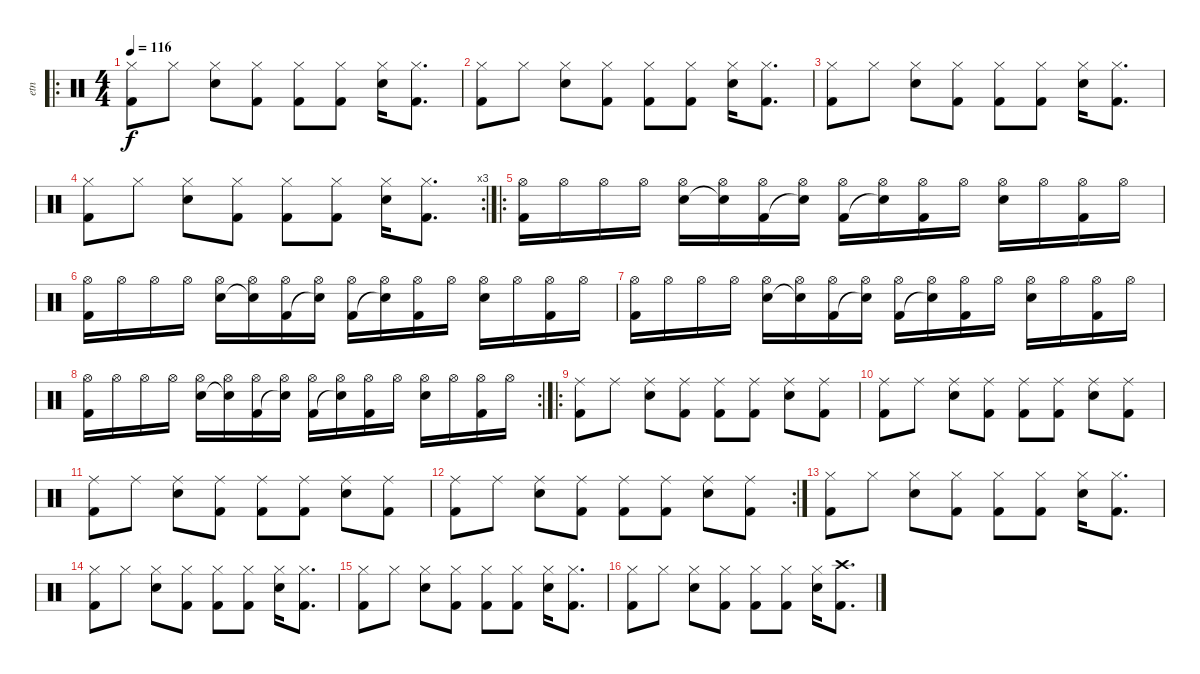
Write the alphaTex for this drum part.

\track ("etn" "etn") {instrument percussion}
\staff {score}
\articulation defaults
\ro
\ts (4 4)
\tempo 116
\clef neutral
\ks c
("Hi-Hat (closed)" "Kick (hit) 2").8{dy f} "Hi-Hat (closed)".8 ("Hi-Hat (closed)" "Snare (hit) 2").8 ("Hi-Hat (closed)" "Kick (hit) 2").8 ("Hi-Hat (closed)" "Kick (hit) 2").8 ("Hi-Hat (closed)" "Kick (hit) 2").8 ("Hi-Hat (closed)" "Snare (hit) 2").16 ("Hi-Hat (closed)" "Kick (hit) 2").8{d} |
("Hi-Hat (closed)" "Kick (hit) 2").8 "Hi-Hat (closed)".8 ("Hi-Hat (closed)" "Snare (hit) 2").8 ("Hi-Hat (closed)" "Kick (hit) 2").8 ("Hi-Hat (closed)" "Kick (hit) 2").8 ("Hi-Hat (closed)" "Kick (hit) 2").8 ("Hi-Hat (closed)" "Snare (hit) 2").16 ("Hi-Hat (closed)" "Kick (hit) 2").8{d} |
("Hi-Hat (closed)" "Kick (hit) 2").8 "Hi-Hat (closed)".8 ("Hi-Hat (closed)" "Snare (hit) 2").8 ("Hi-Hat (closed)" "Kick (hit) 2").8 ("Hi-Hat (closed)" "Kick (hit) 2").8 ("Hi-Hat (closed)" "Kick (hit) 2").8 ("Hi-Hat (closed)" "Snare (hit) 2").16 ("Hi-Hat (closed)" "Kick (hit) 2").8{d} |
\rc 3
("Hi-Hat (closed)" "Kick (hit) 2").8 "Hi-Hat (closed)".8 ("Hi-Hat (closed)" "Snare (hit) 2").8 ("Hi-Hat (closed)" "Kick (hit) 2").8 ("Hi-Hat (closed)" "Kick (hit) 2").8 ("Hi-Hat (closed)" "Kick (hit) 2").8 ("Hi-Hat (closed)" "Snare (hit) 2").16 ("Hi-Hat (closed)" "Kick (hit) 2").8{d} |
\ro
("Hi-Hat (open)" "Kick (hit) 2").16 "Hi-Hat (open)".16 "Hi-Hat (open)".16 "Hi-Hat (open)".16 ("Hi-Hat (open)" "Snare (hit) 2").16 ("Hi-Hat (open)" "Snare (hit)"{t}).16 ("Hi-Hat (open)" "Kick (hit) 2").16 ("Hi-Hat (open)" "Snare (hit)"{t}).16 ("Hi-Hat (open)" "Kick (hit) 2").16 ("Hi-Hat (open)" "Snare (hit)"{t}).16 ("Hi-Hat (open)" "Kick (hit) 2").16 "Hi-Hat (open)".16 ("Hi-Hat (open)" "Snare (hit) 2").16 "Hi-Hat (open)".16 ("Hi-Hat (open)" "Kick (hit) 2").16 "Hi-Hat (open)".16 |
("Hi-Hat (open)" "Kick (hit) 2").16 "Hi-Hat (open)".16 "Hi-Hat (open)".16 "Hi-Hat (open)".16 ("Hi-Hat (open)" "Snare (hit) 2").16 ("Hi-Hat (open)" "Snare (hit)"{t}).16 ("Hi-Hat (open)" "Kick (hit) 2").16 ("Hi-Hat (open)" "Snare (hit)"{t}).16 ("Hi-Hat (open)" "Kick (hit) 2").16 ("Hi-Hat (open)" "Snare (hit)"{t}).16 ("Hi-Hat (open)" "Kick (hit) 2").16 "Hi-Hat (open)".16 ("Hi-Hat (open)" "Snare (hit) 2").16 "Hi-Hat (open)".16 ("Hi-Hat (open)" "Kick (hit) 2").16 "Hi-Hat (open)".16 |
("Hi-Hat (open)" "Kick (hit) 2").16 "Hi-Hat (open)".16 "Hi-Hat (open)".16 "Hi-Hat (open)".16 ("Hi-Hat (open)" "Snare (hit) 2").16 ("Hi-Hat (open)" "Snare (hit)"{t}).16 ("Hi-Hat (open)" "Kick (hit) 2").16 ("Hi-Hat (open)" "Snare (hit)"{t}).16 ("Hi-Hat (open)" "Kick (hit) 2").16 ("Hi-Hat (open)" "Snare (hit)"{t}).16 ("Hi-Hat (open)" "Kick (hit) 2").16 "Hi-Hat (open)".16 ("Hi-Hat (open)" "Snare (hit) 2").16 "Hi-Hat (open)".16 ("Hi-Hat (open)" "Kick (hit) 2").16 "Hi-Hat (open)".16 |
\rc 2
("Hi-Hat (open)" "Kick (hit) 2").16 "Hi-Hat (open)".16 "Hi-Hat (open)".16 "Hi-Hat (open)".16 ("Hi-Hat (open)" "Snare (hit) 2").16 ("Hi-Hat (open)" "Snare (hit)"{t}).16 ("Hi-Hat (open)" "Kick (hit) 2").16 ("Hi-Hat (open)" "Snare (hit)"{t}).16 ("Hi-Hat (open)" "Kick (hit) 2").16 ("Hi-Hat (open)" "Snare (hit)"{t}).16 ("Hi-Hat (open)" "Kick (hit) 2").16 "Hi-Hat (open)".16 ("Hi-Hat (open)" "Snare (hit) 2").16 "Hi-Hat (open)".16 ("Hi-Hat (open)" "Kick (hit) 2").16 "Hi-Hat (open)".16 |
\ro
("Ride (middle)" "Kick (hit) 2").8 "Ride (middle)".8 ("Ride (middle)" "Snare (hit) 2").8 ("Ride (middle)" "Kick (hit) 2").8 ("Ride (middle)" "Kick (hit) 2").8 ("Ride (middle)" "Kick (hit) 2").8 ("Ride (middle)" "Snare (hit) 2").8 ("Ride (middle)" "Kick (hit) 2").8 |
("Ride (middle)" "Kick (hit) 2").8 "Ride (middle)".8 ("Ride (middle)" "Snare (hit) 2").8 ("Ride (middle)" "Kick (hit) 2").8 ("Ride (middle)" "Kick (hit) 2").8 ("Ride (middle)" "Kick (hit) 2").8 ("Ride (middle)" "Snare (hit) 2").8 ("Ride (middle)" "Kick (hit) 2").8 |
("Ride (middle)" "Kick (hit) 2").8 "Ride (middle)".8 ("Ride (middle)" "Snare (hit) 2").8 ("Ride (middle)" "Kick (hit) 2").8 ("Ride (middle)" "Kick (hit) 2").8 ("Ride (middle)" "Kick (hit) 2").8 ("Ride (middle)" "Snare (hit) 2").8 ("Ride (middle)" "Kick (hit) 2").8 |
\rc 2
("Ride (middle)" "Kick (hit) 2").8 "Ride (middle)".8 ("Ride (middle)" "Snare (hit) 2").8 ("Ride (middle)" "Kick (hit) 2").8 ("Ride (middle)" "Kick (hit) 2").8 ("Ride (middle)" "Kick (hit) 2").8 ("Ride (middle)" "Snare (hit) 2").8 ("Ride (middle)" "Kick (hit) 2").8 |
("Hi-Hat (closed)" "Kick (hit) 2").8 "Hi-Hat (closed)".8 ("Hi-Hat (closed)" "Snare (hit) 2").8 ("Hi-Hat (closed)" "Kick (hit) 2").8 ("Hi-Hat (closed)" "Kick (hit) 2").8 ("Hi-Hat (closed)" "Kick (hit) 2").8 ("Hi-Hat (closed)" "Snare (hit) 2").16 ("Hi-Hat (closed)" "Kick (hit) 2").8{d} |
("Hi-Hat (closed)" "Kick (hit) 2").8 "Hi-Hat (closed)".8 ("Hi-Hat (closed)" "Snare (hit) 2").8 ("Hi-Hat (closed)" "Kick (hit) 2").8 ("Hi-Hat (closed)" "Kick (hit) 2").8 ("Hi-Hat (closed)" "Kick (hit) 2").8 ("Hi-Hat (closed)" "Snare (hit) 2").16 ("Hi-Hat (closed)" "Kick (hit) 2").8{d} |
("Hi-Hat (closed)" "Kick (hit) 2").8 "Hi-Hat (closed)".8 ("Hi-Hat (closed)" "Snare (hit) 2").8 ("Hi-Hat (closed)" "Kick (hit) 2").8 ("Hi-Hat (closed)" "Kick (hit) 2").8 ("Hi-Hat (closed)" "Kick (hit) 2").8 ("Hi-Hat (closed)" "Snare (hit) 2").16 ("Hi-Hat (closed)" "Kick (hit) 2").8{d} |
("Hi-Hat (closed)" "Kick (hit) 2").8 "Hi-Hat (closed)".8 ("Hi-Hat (closed)" "Snare (hit) 2").8 ("Hi-Hat (closed)" "Kick (hit) 2").8 ("Hi-Hat (closed)" "Kick (hit) 2").8 ("Hi-Hat (closed)" "Kick (hit) 2").8 ("Hi-Hat (closed)" "Snare (hit) 2").16 ("Crash high (hit)" "Kick (hit) 2").8{d}
